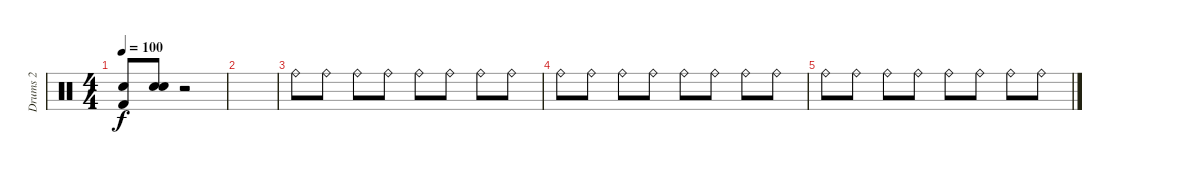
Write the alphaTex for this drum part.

\track ("Drums 2" "Drums 2") {instrument percussion}
\staff {score}
\articulation defaults
\ts (4 4)
\tempo 100
\clef neutral
\ks c
("Kick (hit) 2" "Snare (hit) 2").8{bu 480 dy f} ("Snare (hit) 2" "Snare (hit) 2").8{bu 480} r.2 |
|
"Ride (bell)".8{volume 16 balance 0} "Ride (bell)".8{volume 8 balance 16} "Ride (bell)".8{balance 0} "Ride (bell)".8{balance 16} "Ride (bell)".8{balance 0} "Ride (bell)".8{balance 16} "Ride (bell)".8{balance 0} "Ride (bell)".8{balance 16} |
"Ride (bell)".8{volume 2 balance 0} "Ride (bell)".8{balance 16} "Ride (bell)".8{balance 0} "Ride (bell)".8{balance 16} "Ride (bell)".8{balance 0} "Ride (bell)".8{balance 16} "Ride (bell)".8{balance 0} "Ride (bell)".8{balance 16} |
"Ride (bell)".8{volume 6 balance 0} "Ride (bell)".8{balance 16} "Ride (bell)".8{balance 0} "Ride (bell)".8{balance 16} "Ride (bell)".8{volume 1 balance 0} "Ride (bell)".8{balance 16} "Ride (bell)".8{balance 0} "Ride (bell)".8{balance 16}
